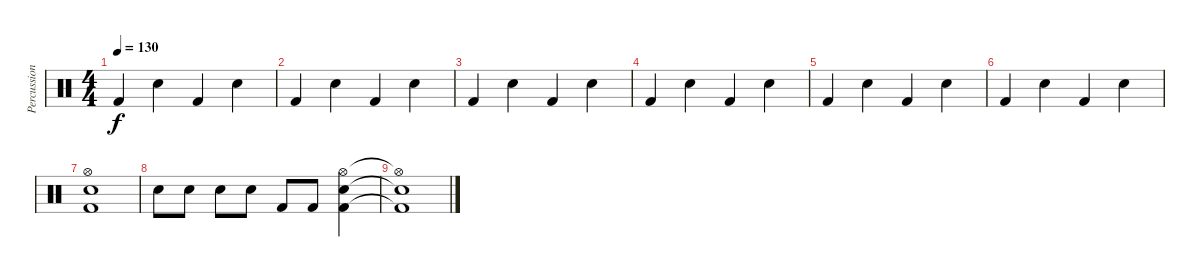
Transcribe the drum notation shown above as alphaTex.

\track ("Percussion" "Percussion") {instrument percussion}
\staff {score}
\articulation defaults
\ts (4 4)
\tempo 130
\clef neutral
\ks c "Kick (hit) 2".4{dy f} "Snare (hit) 2".4 "Kick (hit) 2".4 "Snare (hit) 2".4
|
"Kick (hit) 2".4 "Snare (hit) 2".4 "Kick (hit) 2".4 "Snare (hit) 2".4 |
"Kick (hit) 2".4 "Snare (hit) 2".4 "Kick (hit) 2".4 "Snare (hit) 2".4 |
"Kick (hit) 2".4 "Snare (hit) 2".4 "Kick (hit) 2".4 "Snare (hit) 2".4 |
"Kick (hit) 2".4 "Snare (hit) 2".4 "Kick (hit) 2".4 "Snare (hit) 2".4 |
"Kick (hit) 2".4 "Snare (hit) 2".4 "Kick (hit) 2".4 "Snare (hit) 2".4 |
("Hi-Hat (open)" "Snare (hit) 2" "Kick (hit) 2").1 |
"Snare (hit) 2".8 "Snare (hit) 2".8 "Snare (hit) 2".8 "Snare (hit) 2".8 "Kick (hit) 2".8 "Kick (hit) 2".8 ("Hi-Hat (open)" "Snare (hit) 2" "Kick (hit) 2").4 |
("Hi-Hat (open)"{t} "Snare (hit) 2"{t} "Kick (hit) 2"{t}).1
